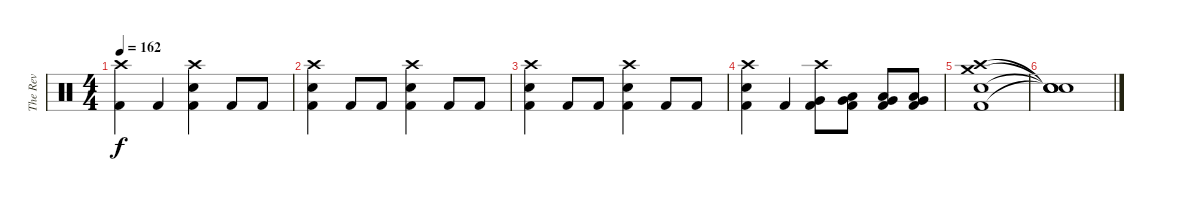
\track ("The Rev" "The Rev") {instrument percussion}
\staff {score}
\articulation defaults
\ts (4 4)
\tempo 162
\clef neutral
\ks c
("Crash high (hit)" "Kick (hit) 2").4{dy f} "Kick (hit) 2".4 ("Crash high (hit)" "Electric Snare (hit)" "Kick (hit) 2").4 "Kick (hit) 2".8 "Kick (hit) 2".8 |
("Crash high (hit)" "Electric Snare (hit)" "Kick (hit) 2").4 "Kick (hit) 2".8 "Kick (hit) 2".8 ("Crash high (hit)" "Electric Snare (hit)" "Kick (hit) 2").4 "Kick (hit) 2".8 "Kick (hit) 2".8 |
("Crash high (hit)" "Electric Snare (hit)" "Kick (hit) 2").4 "Kick (hit) 2".8 "Kick (hit) 2".8 ("Crash high (hit)" "Electric Snare (hit)" "Kick (hit) 2").4 "Kick (hit) 2".8 "Kick (hit) 2".8 |
("Crash high (hit)" "Electric Snare (hit)" "Kick (hit) 2").4 "Kick (hit) 2".4 ("Crash high (hit)" "Very Low Tom (hit)" "Kick (hit) 2").8 ("Low Floor Tom (hit)" "Very Low Tom (hit)" "Kick (hit) 2").8 ("Low Floor Tom (hit)" "Very Low Tom (hit)" "Kick (hit) 2").8 ("Low Floor Tom (hit)" "Very Low Tom (hit)" "Kick (hit) 2").8 |
("Crash high (hit)" "Crash medium (hit)" "Electric Snare (hit)" "Kick (hit) 2").1 |
("Snare (hit)"{t} "Snare (hit)"{t} "Snare (hit)"{t} "Snare (hit)"{t}).1
